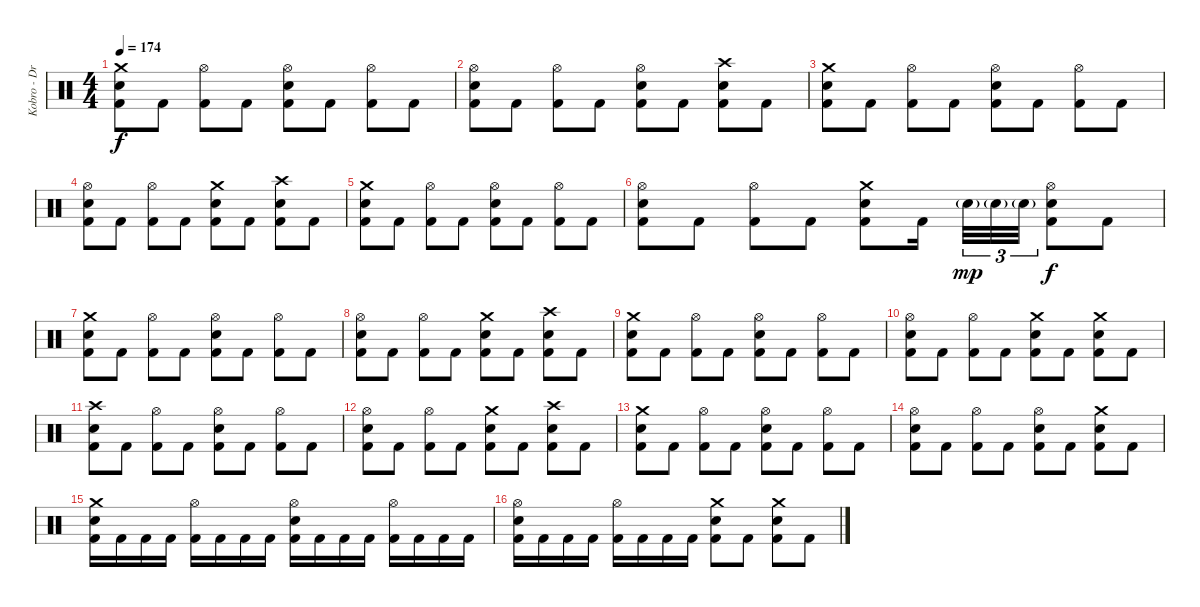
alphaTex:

\track ("Kobro - Drums + Percussion" "Kobro - Dr") {instrument percussion}
\staff {score}
\articulation defaults
\ts (4 4)
\tempo 174
\clef neutral
\ks c
("Crash medium (hit)" "Electric Snare (hit)" "Kick (hit) 2").8{dy f} "Kick (hit) 2".8 ("Hi-Hat (open)" "Kick (hit) 2").8 "Kick (hit) 2".8 ("Hi-Hat (open)" "Electric Snare (hit)" "Kick (hit) 2").8 "Kick (hit) 2".8 ("Hi-Hat (open)" "Kick (hit) 2").8 "Kick (hit) 2".8 |
("Hi-Hat (open)" "Electric Snare (hit)" "Kick (hit) 2").8 "Kick (hit) 2".8 ("Hi-Hat (open)" "Kick (hit) 2").8 "Kick (hit) 2".8 ("Hi-Hat (open)" "Electric Snare (hit)" "Kick (hit) 2").8 "Kick (hit) 2".8 ("Crash high (hit)" "Electric Snare (hit)" "Kick (hit) 2").8 "Kick (hit) 2".8 |
("Crash medium (hit)" "Electric Snare (hit)" "Kick (hit) 2").8 "Kick (hit) 2".8 ("Hi-Hat (open)" "Kick (hit) 2").8 "Kick (hit) 2".8 ("Hi-Hat (open)" "Electric Snare (hit)" "Kick (hit) 2").8 "Kick (hit) 2".8 ("Hi-Hat (open)" "Kick (hit) 2").8 "Kick (hit) 2".8 |
("Hi-Hat (open)" "Electric Snare (hit)" "Kick (hit) 2").8 "Kick (hit) 2".8 ("Hi-Hat (open)" "Kick (hit) 2").8 "Kick (hit) 2".8 ("Crash medium (hit)" "Electric Snare (hit)" "Kick (hit) 2").8 "Kick (hit) 2".8 ("Crash high (hit)" "Electric Snare (hit)" "Kick (hit) 2").8 "Kick (hit) 2".8 |
("Crash medium (hit)" "Electric Snare (hit)" "Kick (hit) 2").8 "Kick (hit) 2".8 ("Hi-Hat (open)" "Kick (hit) 2").8 "Kick (hit) 2".8 ("Hi-Hat (open)" "Electric Snare (hit)" "Kick (hit) 2").8 "Kick (hit) 2".8 ("Hi-Hat (open)" "Kick (hit) 2").8 "Kick (hit) 2".8 |
("Hi-Hat (open)" "Electric Snare (hit)" "Kick (hit) 2").8 "Kick (hit) 2".8 ("Hi-Hat (open)" "Kick (hit) 2").8 "Kick (hit) 2".8 ("Crash medium (hit)" "Electric Snare (hit)" "Kick (hit) 2").8 "Kick (hit) 2".16 "Electric Snare (hit)"{g}.32{tu (3 2) dy mp} "Electric Snare (hit)"{g}.32{tu (3 2)} "Electric Snare (hit)"{g}.32{tu (3 2)} ("Hi-Hat (open)" "Electric Snare (hit)" "Kick (hit) 2").8{dy f} "Kick (hit) 2".8 |
("Crash medium (hit)" "Electric Snare (hit)" "Kick (hit) 2").8 "Kick (hit) 2".8 ("Hi-Hat (open)" "Kick (hit) 2").8 "Kick (hit) 2".8 ("Hi-Hat (open)" "Electric Snare (hit)" "Kick (hit) 2").8 "Kick (hit) 2".8 ("Hi-Hat (open)" "Kick (hit) 2").8 "Kick (hit) 2".8 |
("Hi-Hat (open)" "Electric Snare (hit)" "Kick (hit) 2").8 "Kick (hit) 2".8 ("Hi-Hat (open)" "Kick (hit) 2").8 "Kick (hit) 2".8 ("Crash medium (hit)" "Electric Snare (hit)" "Kick (hit) 2").8 "Kick (hit) 2".8 ("Crash high (hit)" "Electric Snare (hit)" "Kick (hit) 2").8 "Kick (hit) 2".8 |
("Crash medium (hit)" "Electric Snare (hit)" "Kick (hit) 2").8 "Kick (hit) 2".8 ("Hi-Hat (open)" "Kick (hit) 2").8 "Kick (hit) 2".8 ("Hi-Hat (open)" "Electric Snare (hit)" "Kick (hit) 2").8 "Kick (hit) 2".8 ("Hi-Hat (open)" "Kick (hit) 2").8 "Kick (hit) 2".8 |
("Hi-Hat (open)" "Electric Snare (hit)" "Kick (hit) 2").8 "Kick (hit) 2".8 ("Hi-Hat (open)" "Kick (hit) 2").8 "Kick (hit) 2".8 ("Crash medium (hit)" "Electric Snare (hit)" "Kick (hit) 2").8 "Kick (hit) 2".8 ("Crash medium (hit)" "Electric Snare (hit)" "Kick (hit) 2").8 "Kick (hit) 2".8 |
("Crash high (hit)" "Electric Snare (hit)" "Kick (hit) 2").8 "Kick (hit) 2".8 ("Hi-Hat (open)" "Kick (hit) 2").8 "Kick (hit) 2".8 ("Hi-Hat (open)" "Electric Snare (hit)" "Kick (hit) 2").8 "Kick (hit) 2".8 ("Hi-Hat (open)" "Kick (hit) 2").8 "Kick (hit) 2".8 |
("Hi-Hat (open)" "Electric Snare (hit)" "Kick (hit) 2").8 "Kick (hit) 2".8 ("Hi-Hat (open)" "Kick (hit) 2").8 "Kick (hit) 2".8 ("Crash medium (hit)" "Electric Snare (hit)" "Kick (hit) 2").8 "Kick (hit) 2".8 ("Crash high (hit)" "Electric Snare (hit)" "Kick (hit) 2").8 "Kick (hit) 2".8 |
("Crash medium (hit)" "Electric Snare (hit)" "Kick (hit) 2").8 "Kick (hit) 2".8 ("Hi-Hat (open)" "Kick (hit) 2").8 "Kick (hit) 2".8 ("Hi-Hat (open)" "Electric Snare (hit)" "Kick (hit) 2").8 "Kick (hit) 2".8 ("Hi-Hat (open)" "Kick (hit) 2").8 "Kick (hit) 2".8 |
("Hi-Hat (open)" "Electric Snare (hit)" "Kick (hit) 2").8 "Kick (hit) 2".8 ("Hi-Hat (open)" "Kick (hit) 2").8 "Kick (hit) 2".8 ("Hi-Hat (open)" "Electric Snare (hit)" "Kick (hit) 2").8 "Kick (hit) 2".8 ("Crash medium (hit)" "Electric Snare (hit)" "Kick (hit) 2").8 "Kick (hit) 2".8 |
("Crash medium (hit)" "Electric Snare (hit)" "Kick (hit) 2").16 "Kick (hit) 2".16 "Kick (hit) 2".16 "Kick (hit) 2".16 ("Hi-Hat (open)" "Kick (hit) 2").16 "Kick (hit) 2".16 "Kick (hit) 2".16 "Kick (hit) 2".16 ("Hi-Hat (open)" "Electric Snare (hit)" "Kick (hit) 2").16 "Kick (hit) 2".16 "Kick (hit) 2".16 "Kick (hit) 2".16 ("Hi-Hat (open)" "Kick (hit) 2").16 "Kick (hit) 2".16 "Kick (hit) 2".16 "Kick (hit) 2".16 |
("Hi-Hat (open)" "Electric Snare (hit)" "Kick (hit) 2").16 "Kick (hit) 2".16 "Kick (hit) 2".16 "Kick (hit) 2".16 ("Hi-Hat (open)" "Kick (hit) 2").16 "Kick (hit) 2".16 "Kick (hit) 2".16 "Kick (hit) 2".16 ("Crash medium (hit)" "Electric Snare (hit)" "Kick (hit) 2").8 "Kick (hit) 2".8 ("Crash medium (hit)" "Electric Snare (hit)" "Kick (hit) 2").8 "Kick (hit) 2".8
